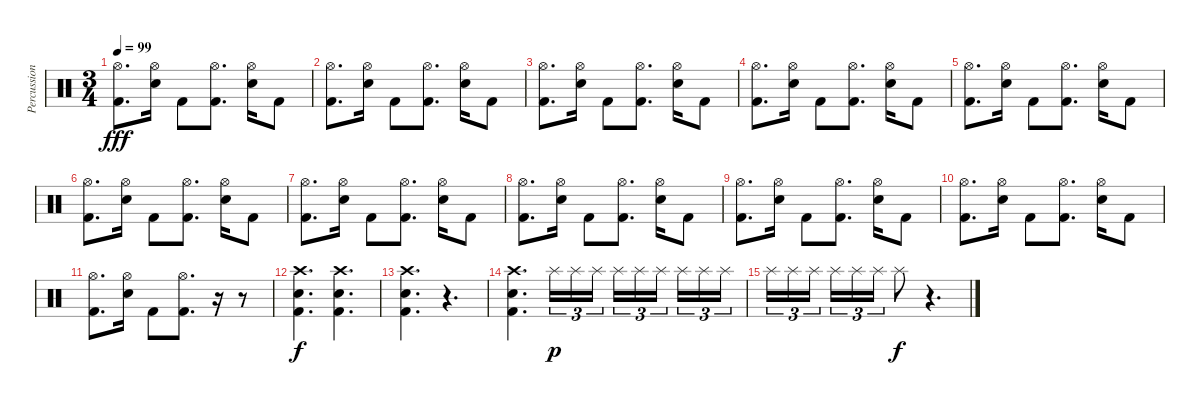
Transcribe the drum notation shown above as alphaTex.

\track ("Percussion" "Percussion") {instrument percussion}
\staff {score}
\articulation defaults
\ts (3 4)
\tempo 99
\clef neutral
\ks c
("Hi-Hat (open)" "Kick (hit) 2").8{d dy fff} ("Hi-Hat (open)" "Electric Snare (hit)").16 "Kick (hit) 2".8 ("Hi-Hat (open)" "Kick (hit) 2").8{d} ("Hi-Hat (open)" "Electric Snare (hit)").16 "Kick (hit) 2".8 |
("Hi-Hat (open)" "Kick (hit) 2").8{d} ("Hi-Hat (open)" "Electric Snare (hit)").16 "Kick (hit) 2".8 ("Hi-Hat (open)" "Kick (hit) 2").8{d} ("Hi-Hat (open)" "Electric Snare (hit)").16 "Kick (hit) 2".8 |
("Hi-Hat (open)" "Kick (hit) 2").8{d} ("Hi-Hat (open)" "Electric Snare (hit)").16 "Kick (hit) 2".8 ("Hi-Hat (open)" "Kick (hit) 2").8{d} ("Hi-Hat (open)" "Electric Snare (hit)").16 "Kick (hit) 2".8 |
("Hi-Hat (open)" "Kick (hit) 2").8{d} ("Hi-Hat (open)" "Electric Snare (hit)").16 "Kick (hit) 2".8 ("Hi-Hat (open)" "Kick (hit) 2").8{d} ("Hi-Hat (open)" "Electric Snare (hit)").16 "Kick (hit) 2".8 |
("Hi-Hat (open)" "Kick (hit) 2").8{d} ("Hi-Hat (open)" "Electric Snare (hit)").16 "Kick (hit) 2".8 ("Hi-Hat (open)" "Kick (hit) 2").8{d} ("Hi-Hat (open)" "Electric Snare (hit)").16 "Kick (hit) 2".8 |
("Hi-Hat (open)" "Kick (hit) 2").8{d} ("Hi-Hat (open)" "Electric Snare (hit)").16 "Kick (hit) 2".8 ("Hi-Hat (open)" "Kick (hit) 2").8{d} ("Hi-Hat (open)" "Electric Snare (hit)").16 "Kick (hit) 2".8 |
("Hi-Hat (open)" "Kick (hit) 2").8{d} ("Hi-Hat (open)" "Electric Snare (hit)").16 "Kick (hit) 2".8 ("Hi-Hat (open)" "Kick (hit) 2").8{d} ("Hi-Hat (open)" "Electric Snare (hit)").16 "Kick (hit) 2".8 |
("Hi-Hat (open)" "Kick (hit) 2").8{d} ("Hi-Hat (open)" "Electric Snare (hit)").16 "Kick (hit) 2".8 ("Hi-Hat (open)" "Kick (hit) 2").8{d} ("Hi-Hat (open)" "Electric Snare (hit)").16 "Kick (hit) 2".8 |
("Hi-Hat (open)" "Kick (hit) 2").8{d} ("Hi-Hat (open)" "Electric Snare (hit)").16 "Kick (hit) 2".8 ("Hi-Hat (open)" "Kick (hit) 2").8{d} ("Hi-Hat (open)" "Electric Snare (hit)").16 "Kick (hit) 2".8 |
("Hi-Hat (open)" "Kick (hit) 2").8{d} ("Hi-Hat (open)" "Electric Snare (hit)").16 "Kick (hit) 2".8 ("Hi-Hat (open)" "Kick (hit) 2").8{d} ("Hi-Hat (open)" "Electric Snare (hit)").16 "Kick (hit) 2".8 |
("Hi-Hat (open)" "Kick (hit) 2").8{d} ("Hi-Hat (open)" "Electric Snare (hit)").16 "Kick (hit) 2".8 ("Hi-Hat (open)" "Kick (hit) 2").8{d} r.16 r.8 |
("Crash high (hit)" "Kick (hit) 2" "Electric Snare (hit)").4{d dy f} ("Crash high (hit)" "Kick (hit) 2" "Electric Snare (hit)").4{d} |
("Crash high (hit)" "Kick (hit) 2" "Electric Snare (hit)").4{d} r.4{d} |
("Crash high (hit)" "Kick (hit) 2" "Electric Snare (hit)").4{d} "Splash (hit)".16{tu (3 2) dy p} "Splash (hit)".16{tu (3 2)} "Splash (hit)".16{tu (3 2)} "Splash (hit)".16{tu (3 2)} "Splash (hit)".16{tu (3 2)} "Splash (hit)".16{tu (3 2) beam splitsecondary} "Splash (hit)".16{tu (3 2)} "Splash (hit)".16{tu (3 2)} "Splash (hit)".16{tu (3 2)} |
"Splash (hit)".16{tu (3 2)} "Splash (hit)".16{tu (3 2)} "Splash (hit)".16{tu (3 2) beam splitsecondary} "Splash (hit)".16{tu (3 2)} "Splash (hit)".16{tu (3 2)} "Splash (hit)".16{tu (3 2)} "Splash (hit)".8{dy f} r.4{d}
